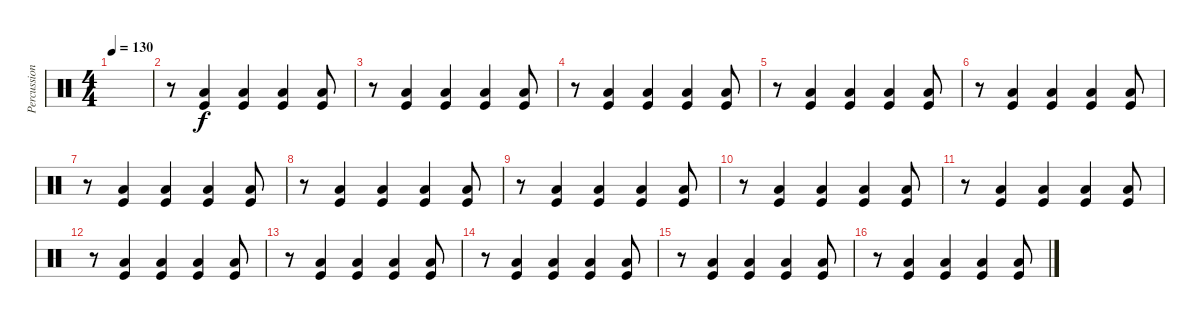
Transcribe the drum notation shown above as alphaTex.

\track ("Percussion" "Percussion") {instrument percussion}
\staff {score}
\articulation defaults
\ts (4 4)
\tempo 130
\clef neutral
\ks c
|
r.8 ("Low Floor Tom (hit)" "Kick (hit)").4 ("Low Floor Tom (hit)" "Kick (hit)").4 ("Low Floor Tom (hit)" "Kick (hit)").4 ("Low Floor Tom (hit)" "Kick (hit)").8 |
r.8 ("Low Floor Tom (hit)" "Kick (hit)").4 ("Low Floor Tom (hit)" "Kick (hit)").4 ("Low Floor Tom (hit)" "Kick (hit)").4 ("Low Floor Tom (hit)" "Kick (hit)").8 |
r.8 ("Low Floor Tom (hit)" "Kick (hit)").4 ("Low Floor Tom (hit)" "Kick (hit)").4 ("Low Floor Tom (hit)" "Kick (hit)").4 ("Low Floor Tom (hit)" "Kick (hit)").8 |
r.8 ("Low Floor Tom (hit)" "Kick (hit)").4 ("Low Floor Tom (hit)" "Kick (hit)").4 ("Low Floor Tom (hit)" "Kick (hit)").4 ("Low Floor Tom (hit)" "Kick (hit)").8 |
r.8 ("Low Floor Tom (hit)" "Kick (hit)").4 ("Low Floor Tom (hit)" "Kick (hit)").4 ("Low Floor Tom (hit)" "Kick (hit)").4 ("Low Floor Tom (hit)" "Kick (hit)").8 |
r.8 ("Low Floor Tom (hit)" "Kick (hit)").4 ("Low Floor Tom (hit)" "Kick (hit)").4 ("Low Floor Tom (hit)" "Kick (hit)").4 ("Low Floor Tom (hit)" "Kick (hit)").8 |
r.8 ("Low Floor Tom (hit)" "Kick (hit)").4 ("Low Floor Tom (hit)" "Kick (hit)").4 ("Low Floor Tom (hit)" "Kick (hit)").4 ("Low Floor Tom (hit)" "Kick (hit)").8 |
r.8 ("Low Floor Tom (hit)" "Kick (hit)").4 ("Low Floor Tom (hit)" "Kick (hit)").4 ("Low Floor Tom (hit)" "Kick (hit)").4 ("Low Floor Tom (hit)" "Kick (hit)").8 |
r.8 ("Low Floor Tom (hit)" "Kick (hit)").4 ("Low Floor Tom (hit)" "Kick (hit)").4 ("Low Floor Tom (hit)" "Kick (hit)").4 ("Low Floor Tom (hit)" "Kick (hit)").8 |
r.8 ("Low Floor Tom (hit)" "Kick (hit)").4 ("Low Floor Tom (hit)" "Kick (hit)").4 ("Low Floor Tom (hit)" "Kick (hit)").4 ("Low Floor Tom (hit)" "Kick (hit)").8 |
r.8 ("Low Floor Tom (hit)" "Kick (hit)").4 ("Low Floor Tom (hit)" "Kick (hit)").4 ("Low Floor Tom (hit)" "Kick (hit)").4 ("Low Floor Tom (hit)" "Kick (hit)").8 |
r.8 ("Low Floor Tom (hit)" "Kick (hit)").4 ("Low Floor Tom (hit)" "Kick (hit)").4 ("Low Floor Tom (hit)" "Kick (hit)").4 ("Low Floor Tom (hit)" "Kick (hit)").8 |
r.8 ("Low Floor Tom (hit)" "Kick (hit)").4 ("Low Floor Tom (hit)" "Kick (hit)").4 ("Low Floor Tom (hit)" "Kick (hit)").4 ("Low Floor Tom (hit)" "Kick (hit)").8 |
r.8 ("Low Floor Tom (hit)" "Kick (hit)").4 ("Low Floor Tom (hit)" "Kick (hit)").4 ("Low Floor Tom (hit)" "Kick (hit)").4 ("Low Floor Tom (hit)" "Kick (hit)").8 |
r.8 ("Low Floor Tom (hit)" "Kick (hit)").4 ("Low Floor Tom (hit)" "Kick (hit)").4 ("Low Floor Tom (hit)" "Kick (hit)").4 ("Low Floor Tom (hit)" "Kick (hit)").8
